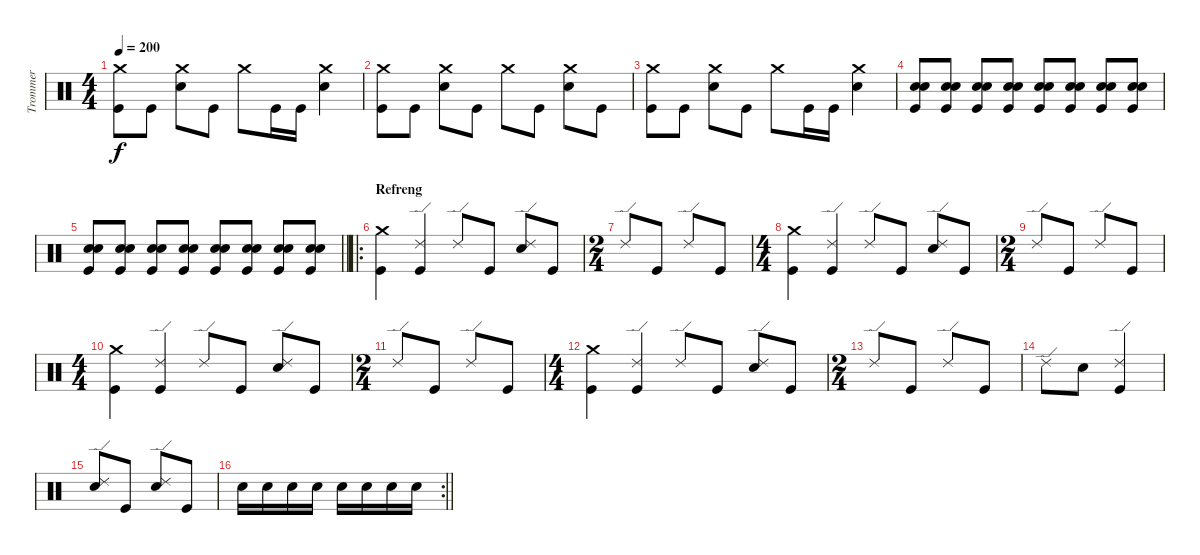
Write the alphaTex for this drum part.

\track ("Trommer" "Trommer") {instrument percussion}
\staff {score}
\articulation defaults
\ts (4 4)
\tempo 200
\clef neutral
\ks c
("Crash medium (hit)" "Kick (hit)").8{dy f} "Kick (hit)".8 ("Crash medium (hit)" "Snare (hit) 2").8 "Kick (hit)".8 "Crash medium (hit)".8 "Kick (hit)".16 "Kick (hit)".16 ("Crash medium (hit)" "Snare (hit) 2").4 |
("Crash medium (hit)" "Kick (hit)").8 "Kick (hit)".8 ("Crash medium (hit)" "Snare (hit) 2").8 "Kick (hit)".8 "Crash medium (hit)".8 "Kick (hit)".8 ("Crash medium (hit)" "Snare (hit) 2").8 "Kick (hit)".8 |
("Crash medium (hit)" "Kick (hit)").8 "Kick (hit)".8 ("Crash medium (hit)" "Snare (hit) 2").8 "Kick (hit)".8 "Crash medium (hit)".8 "Kick (hit)".16 "Kick (hit)".16 ("Crash medium (hit)" "Snare (hit) 2").4 |
("Snare (hit) 2" "Snare (hit) 2" "Kick (hit)").8 ("Snare (hit) 2" "Snare (hit) 2" "Kick (hit)").8 ("Snare (hit) 2" "Snare (hit) 2" "Kick (hit)").8 ("Snare (hit) 2" "Snare (hit) 2" "Kick (hit)").8 ("Snare (hit) 2" "Snare (hit) 2" "Kick (hit)").8 ("Snare (hit) 2" "Snare (hit) 2" "Kick (hit)").8 ("Snare (hit) 2" "Snare (hit) 2" "Kick (hit)").8 ("Snare (hit) 2" "Snare (hit) 2" "Kick (hit)").8 |
\barLineRight lightlight
("Snare (hit) 2" "Snare (hit) 2" "Kick (hit)").8 ("Snare (hit) 2" "Snare (hit) 2" "Kick (hit)").8 ("Snare (hit) 2" "Snare (hit) 2" "Kick (hit)").8 ("Snare (hit) 2" "Snare (hit) 2" "Kick (hit)").8 ("Snare (hit) 2" "Snare (hit) 2" "Kick (hit)").8 ("Snare (hit) 2" "Snare (hit) 2" "Kick (hit)").8 ("Snare (hit) 2" "Snare (hit) 2" "Kick (hit)").8 ("Snare (hit) 2" "Snare (hit) 2" "Kick (hit)").8 |
\ro
\section ("" "Refreng")
("Crash medium (hit)" "Kick (hit)").4 ("Ride (edge) 2" "Kick (hit)").4 "Ride (edge) 2".8 "Kick (hit)".8 ("Ride (edge) 2" "Snare (hit) 2").8 "Kick (hit)".8 |
\ts (2 4)
"Ride (edge) 2".8 "Kick (hit)".8 "Ride (edge) 2".8 "Kick (hit)".8 |
\ts (4 4)
("Crash medium (hit)" "Kick (hit)").4 ("Ride (edge) 2" "Kick (hit)").4 "Ride (edge) 2".8 "Kick (hit)".8 ("Ride (edge) 2" "Snare (hit) 2").8 "Kick (hit)".8 |
\ts (2 4)
"Ride (edge) 2".8 "Kick (hit)".8 "Ride (edge) 2".8 "Kick (hit)".8 |
\ts (4 4)
("Crash medium (hit)" "Kick (hit)").4 ("Ride (edge) 2" "Kick (hit)").4 "Ride (edge) 2".8 "Kick (hit)".8 ("Ride (edge) 2" "Snare (hit) 2").8 "Kick (hit)".8 |
\ts (2 4)
"Ride (edge) 2".8 "Kick (hit)".8 "Ride (edge) 2".8 "Kick (hit)".8 |
\ts (4 4)
("Crash medium (hit)" "Kick (hit)").4 ("Ride (edge) 2" "Kick (hit)").4 "Ride (edge) 2".8 "Kick (hit)".8 ("Ride (edge) 2" "Snare (hit) 2").8 "Kick (hit)".8 |
\ts (2 4)
"Ride (edge) 2".8 "Kick (hit)".8 "Ride (edge) 2".8 "Kick (hit)".8 |
"Ride (edge) 2".8 "Snare (hit) 2".8 ("Ride (edge) 2" "Kick (hit)").4 |
("Ride (edge) 2" "Snare (hit) 2").8 "Kick (hit)".8 ("Ride (edge) 2" "Snare (hit) 2").8 "Kick (hit)".8 |
\rc 2
\barLineRight lightlight "Snare (hit) 2".16 "Snare (hit) 2".16 "Snare (hit) 2".16 "Snare (hit) 2".16 "Snare (hit) 2".16 "Snare (hit) 2".16 "Snare (hit) 2".16 "Snare (hit) 2".16
